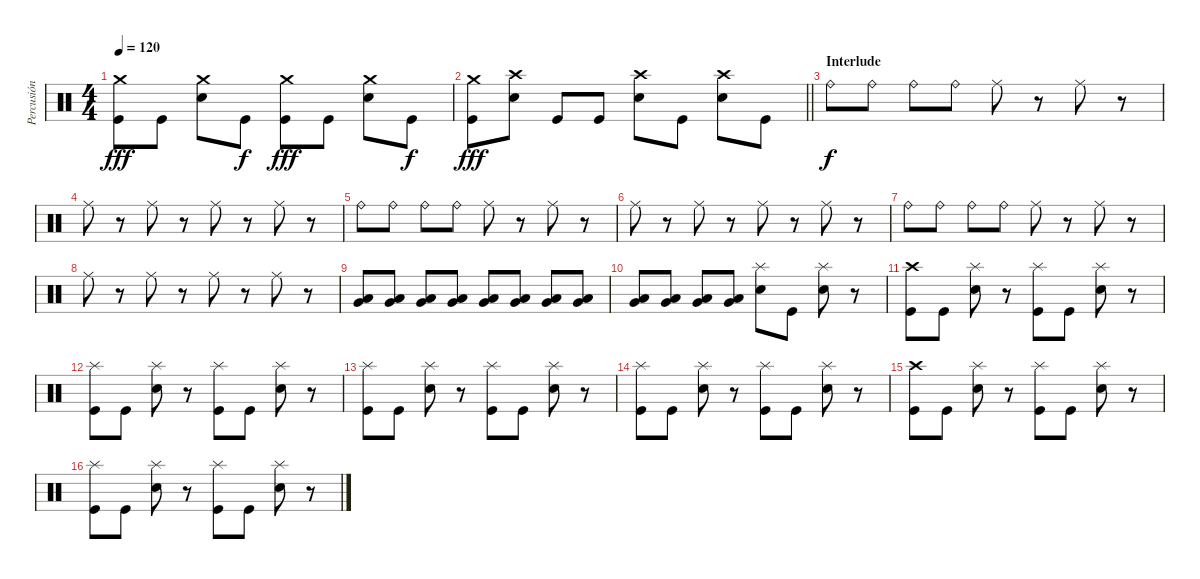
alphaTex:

\track ("Percusión" "Percusión") {instrument percussion}
\staff {score}
\articulation defaults
\ts (4 4)
\tempo 120
\clef neutral
\ks c
("Crash medium (hit)" "Kick (hit)").8{dy fff} "Kick (hit)".8 ("Crash medium (hit)" "Electric Snare (hit)").8 "Kick (hit)".8{dy f} ("Crash medium (hit)" "Kick (hit)").8{dy fff} "Kick (hit)".8 ("Crash medium (hit)" "Electric Snare (hit)").8 "Kick (hit)".8{dy f} |
\barLineRight lightlight
("Crash medium (hit)" "Kick (hit)").8{dy fff} ("Crash high (hit)" "Electric Snare (hit)").8 "Kick (hit)".8 "Kick (hit)".8 ("Crash high (hit)" "Electric Snare (hit)").8 "Kick (hit)".8 ("Crash high (hit)" "Electric Snare (hit)").8 "Kick (hit)".8 |
\section ("" "Interlude")
"Ride (bell)".8{dy f} "Ride (bell)".8 "Ride (bell)".8 "Ride (bell)".8 "Ride (middle)".8 r.8 "Ride (middle)".8 r.8 |
"Ride (middle)".8 r.8 "Ride (middle)".8 r.8 "Ride (middle)".8 r.8 "Ride (middle)".8 r.8 |
"Ride (bell)".8 "Ride (bell)".8 "Ride (bell)".8 "Ride (bell)".8 "Ride (middle)".8 r.8 "Ride (middle)".8 r.8 |
"Ride (middle)".8 r.8 "Ride (middle)".8 r.8 "Ride (middle)".8 r.8 "Ride (middle)".8 r.8 |
"Ride (bell)".8 "Ride (bell)".8 "Ride (bell)".8 "Ride (bell)".8 "Ride (middle)".8 r.8 "Ride (middle)".8 r.8 |
"Ride (middle)".8 r.8 "Ride (middle)".8 r.8 "Ride (middle)".8 r.8 "Ride (middle)".8 r.8 |
("Very Low Tom (hit)" "Low Floor Tom (hit)").8{volume 6} ("Very Low Tom (hit)" "Low Floor Tom (hit)").8{volume 15} ("Very Low Tom (hit)" "Low Floor Tom (hit)").8 ("Very Low Tom (hit)" "Low Floor Tom (hit)").8 ("Very Low Tom (hit)" "Low Floor Tom (hit)").8 ("Very Low Tom (hit)" "Low Floor Tom (hit)").8 ("Very Low Tom (hit)" "Low Floor Tom (hit)").8 ("Very Low Tom (hit)" "Low Floor Tom (hit)").8 |
("Very Low Tom (hit)" "Low Floor Tom (hit)").8 ("Very Low Tom (hit)" "Low Floor Tom (hit)").8 ("Very Low Tom (hit)" "Low Floor Tom (hit)").8 ("Very Low Tom (hit)" "Low Floor Tom (hit)").8 ("Splash (hit)" "Electric Snare (hit)").8 "Kick (hit)".8 ("Splash (hit)" "Electric Snare (hit)").8 r.8 |
("Crash high (hit)" "Kick (hit)").8 "Kick (hit)".8 ("Splash (hit)" "Electric Snare (hit)").8 r.8 ("Splash (hit)" "Kick (hit)").8 "Kick (hit)".8 ("Splash (hit)" "Electric Snare (hit)").8 r.8 |
("Splash (hit)" "Kick (hit)").8 "Kick (hit)".8 ("Splash (hit)" "Electric Snare (hit)").8 r.8 ("Splash (hit)" "Kick (hit)").8 "Kick (hit)".8 ("Splash (hit)" "Electric Snare (hit)").8 r.8 |
("Splash (hit)" "Kick (hit)").8 "Kick (hit)".8 ("Splash (hit)" "Electric Snare (hit)").8 r.8 ("Splash (hit)" "Kick (hit)").8 "Kick (hit)".8 ("Splash (hit)" "Electric Snare (hit)").8 r.8 |
("Splash (hit)" "Kick (hit)").8 "Kick (hit)".8 ("Splash (hit)" "Electric Snare (hit)").8 r.8 ("Splash (hit)" "Kick (hit)").8 "Kick (hit)".8 ("Splash (hit)" "Electric Snare (hit)").8 r.8 |
("Crash high (hit)" "Kick (hit)").8 "Kick (hit)".8 ("Splash (hit)" "Electric Snare (hit)").8 r.8 ("Splash (hit)" "Kick (hit)").8 "Kick (hit)".8 ("Splash (hit)" "Electric Snare (hit)").8 r.8 |
("Splash (hit)" "Kick (hit)").8 "Kick (hit)".8 ("Splash (hit)" "Electric Snare (hit)").8 r.8 ("Splash (hit)" "Kick (hit)").8 "Kick (hit)".8 ("Splash (hit)" "Electric Snare (hit)").8 r.8
